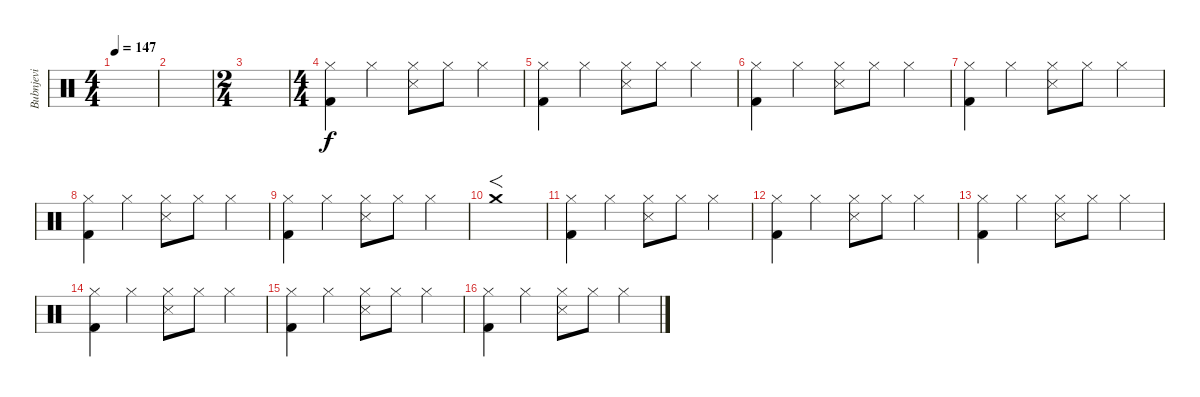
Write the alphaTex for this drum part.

\track ("Bubnjevi" "Bubnjevi") {instrument percussion}
\staff {score}
\articulation defaults
\ts (4 4)
\tempo 147
\clef neutral
\ks c
|
|
\ts (2 4)
|
\ts (4 4)
("Hi-Hat (closed)" "Kick (hit) 2").4 "Hi-Hat (closed)".4 ("Hi-Hat (closed)" "Snare (side stick) 3").8 "Hi-Hat (closed)".8 "Hi-Hat (closed)".4 |
("Hi-Hat (closed)" "Kick (hit) 2").4 "Hi-Hat (closed)".4 ("Hi-Hat (closed)" "Snare (side stick) 3").8 "Hi-Hat (closed)".8 "Hi-Hat (closed)".4 |
("Hi-Hat (closed)" "Kick (hit) 2").4 "Hi-Hat (closed)".4 ("Hi-Hat (closed)" "Snare (side stick) 3").8 "Hi-Hat (closed)".8 "Hi-Hat (closed)".4 |
("Hi-Hat (closed)" "Kick (hit) 2").4 "Hi-Hat (closed)".4 ("Hi-Hat (closed)" "Snare (side stick) 3").8 "Hi-Hat (closed)".8 "Hi-Hat (closed)".4 |
("Hi-Hat (closed)" "Kick (hit) 2").4 "Hi-Hat (closed)".4 ("Hi-Hat (closed)" "Snare (side stick) 3").8 "Hi-Hat (closed)".8 "Hi-Hat (closed)".4 |
("Hi-Hat (closed)" "Kick (hit) 2").4 "Hi-Hat (closed)".4 ("Hi-Hat (closed)" "Snare (side stick) 3").8 "Hi-Hat (closed)".8 "Hi-Hat (closed)".4 |
"Crash medium (hit)".1{f} |
("Hi-Hat (closed)" "Kick (hit) 2").4 "Hi-Hat (closed)".4 ("Hi-Hat (closed)" "Snare (side stick) 3").8 "Hi-Hat (closed)".8 "Hi-Hat (closed)".4 |
("Hi-Hat (closed)" "Kick (hit) 2").4 "Hi-Hat (closed)".4 ("Hi-Hat (closed)" "Snare (side stick) 3").8 "Hi-Hat (closed)".8 "Hi-Hat (closed)".4 |
("Hi-Hat (closed)" "Kick (hit) 2").4 "Hi-Hat (closed)".4 ("Hi-Hat (closed)" "Snare (side stick) 3").8 "Hi-Hat (closed)".8 "Hi-Hat (closed)".4 |
("Hi-Hat (closed)" "Kick (hit) 2").4 "Hi-Hat (closed)".4 ("Hi-Hat (closed)" "Snare (side stick) 3").8 "Hi-Hat (closed)".8 "Hi-Hat (closed)".4 |
("Hi-Hat (closed)" "Kick (hit) 2").4 "Hi-Hat (closed)".4 ("Hi-Hat (closed)" "Snare (side stick) 3").8 "Hi-Hat (closed)".8 "Hi-Hat (closed)".4 |
("Hi-Hat (closed)" "Kick (hit) 2").4 "Hi-Hat (closed)".4 ("Hi-Hat (closed)" "Snare (side stick) 3").8 "Hi-Hat (closed)".8 "Hi-Hat (closed)".4
